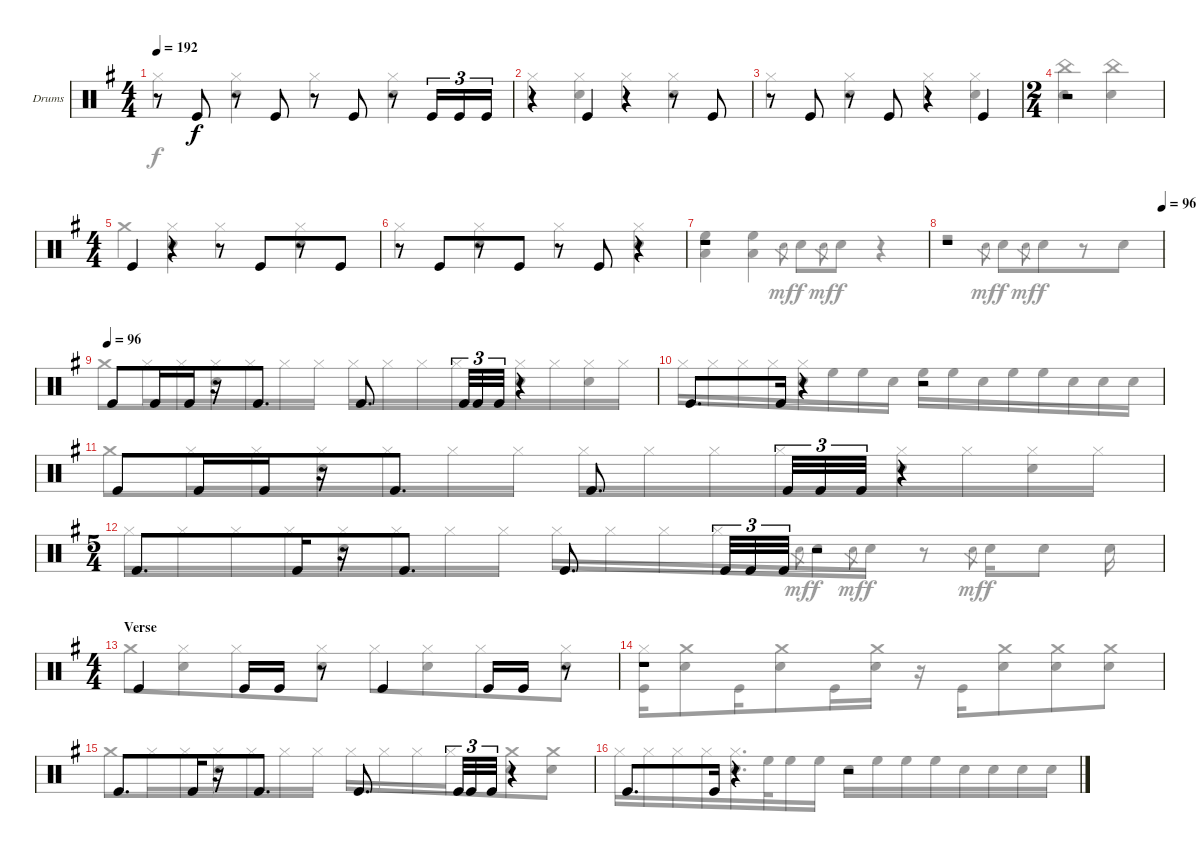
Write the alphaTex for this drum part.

\bracketExtendMode groupsimilarinstruments
\firstSystemTrackNameOrientation horizontal
\otherSystemsTrackNameOrientation horizontal
\track ("Drumkit" "Drums") {instrument percussion}
\staff {score}
\articulation defaults
\voice
\ts (4 4)
\tempo 192
\clef neutral
\scale
1.04288
\ks g
r.8{dy f} "Kick (hit)".8 r.8 "Kick (hit)".8 r.8 "Kick (hit)".8 r.8 "Kick (hit)".16{tu (3 2)} "Kick (hit)".16{tu (3 2)} "Kick (hit)".16{tu (3 2)} |
\scale
0.957125 r.4 "Kick (hit)".4 r.4 r.8 "Kick (hit)".8 |
\scale
1.04288 r.8 "Kick (hit)".8 r.8 "Kick (hit)".8 r.4 "Kick (hit)".4 |
\ts (2 4)
\beaming (8 4 4)
\scale
0.957125 r.2 |
\ts (4 4)
\beaming (8 4 4)
\scale
1.07314 "Kick (hit)".4 r.4 r.8 "Kick (hit)".8 r.8 "Kick (hit)".8 |
\scale
0.92686 r.8 "Kick (hit)".8 r.8 "Kick (hit)".8 r.8 "Kick (hit)".8 r.4 |
\scale
1.04288 r.1 |
\tempo (96 1)
\scale
0.957125 r.1 |
\tempo 96
\scale
1.04288 "Kick (hit)".8 "Kick (hit)".16 "Kick (hit)".16 r.16 "Kick (hit)".8{d} "Kick (hit)".8{d} "Kick (hit)".32{tu (3 2)} "Kick (hit)".32{tu (3 2)} "Kick (hit)".32{tu (3 2)} r.4 |
\scale
0.957125 "Kick (hit)".8{d} "Kick (hit)".16 r.4 r.2 |
\scale
1.04288 "Kick (hit)".8 "Kick (hit)".16 "Kick (hit)".16 r.16 "Kick (hit)".8{d} "Kick (hit)".8{d} "Kick (hit)".32{tu (3 2)} "Kick (hit)".32{tu (3 2)} "Kick (hit)".32{tu (3 2)} r.4 |
\ts (5 4)
\beaming (8 4 4)
\scale
0.957125 "Kick (hit)".8{d} "Kick (hit)".16 r.16 "Kick (hit)".8{d} "Kick (hit)".8{d} "Kick (hit)".32{tu (3 2)} "Kick (hit)".32{tu (3 2)} "Kick (hit)".32{tu (3 2)} r.2 |
\ts (4 4)
\beaming (8 4 4)
\section ("" "Verse")
\scale
1.07314 "Kick (hit)".4 "Kick (hit)".16 "Kick (hit)".16 r.8 "Kick (hit)".4 "Kick (hit)".16 "Kick (hit)".16 r.8 |
\scale
0.92686 r.1 |
\scale
1.04288 "Kick (hit)".8{d} "Kick (hit)".16 r.16 "Kick (hit)".8{d} "Kick (hit)".8{d} "Kick (hit)".32{tu (3 2)} "Kick (hit)".32{tu (3 2)} "Kick (hit)".32{tu (3 2)} r.4 |
\scale
0.957125 "Kick (hit)".8{d} "Kick (hit)".16 r.4 r.2
\voice
\clef neutral
\ottava regular
\simile none
\scale
1.04288
\ks g "Hi-Hat (closed)".4{dy f}
("Hi-Hat (closed)" "Snare (hit) 2").4 "Hi-Hat (closed)".4 ("Hi-Hat (closed)" "Snare (hit) 2").4 |
\scale
0.957125 "Hi-Hat (closed)".4 ("Hi-Hat (closed)" "Snare (hit) 2").4 "Hi-Hat (closed)".4 ("Hi-Hat (closed)" "Snare (hit) 2").4 |
\scale
1.04288 "Hi-Hat (closed)".4 ("Hi-Hat (closed)" "Snare (hit) 2").4 "Hi-Hat (closed)".4 ("Hi-Hat (closed)" "Snare (hit) 2").4 |
\scale
0.957125 ("China (hit)" "Snare (hit) 2").4 ("China (hit)" "Snare (hit) 2").4 |
\scale
1.07314 "Crash medium (hit)".4 ("Hi-Hat (closed)" "Snare (hit) 2").4 "Hi-Hat (closed)".4 ("Hi-Hat (closed)" "Snare (hit) 2").4 |
\scale
0.92686 "Hi-Hat (closed)".4 ("Hi-Hat (closed)" "Snare (hit) 2").4 "Hi-Hat (closed)".4 ("Hi-Hat (closed)" "Snare (hit) 2").4 |
\scale
1.04288 ("High Floor Tom (hit)" "Low Tom (hit)").4 ("High Floor Tom (hit)" "Low Tom (hit)").4 "Snare (hit) 2".8{gr dy mf} "Snare (hit) 2".8{dy f} "Snare (hit) 2".8{gr dy mf} "Snare (hit) 2".8{dy f} r.4 |
\scale
0.957125 r.2 "Snare (hit) 2".8{gr dy mf} "Snare (hit) 2".8{dy f} "Snare (hit) 2".8{gr dy mf} "Snare (hit) 2".8{dy f} r.8 "Snare (hit) 2".8 |
\scale
1.04288 "Crash medium (hit)".8 "Hi-Hat (closed)".16 "Hi-Hat (closed)".16 ("Hi-Hat (closed)" "Snare (hit) 2").16 "Hi-Hat (closed)".16 "Hi-Hat (closed)".16 "Hi-Hat (closed)".16 "Hi-Hat (closed)".16 "Hi-Hat (closed)".16 "Hi-Hat (closed)".16 "Hi-Hat (closed)".16 ("Hi-Hat (closed)" "Snare (hit) 2").16 "Hi-Hat (closed)".16 ("Hi-Hat (closed)" "Snare (hit) 2").16 "Hi-Hat (closed)".16 |
\scale
0.957125 "Hi-Hat (closed)".16 "Hi-Hat (closed)".16 "Hi-Hat (closed)".16 "Hi-Hat (closed)".16 ("Hi-Hat (closed)" "Snare (hit) 2").16 "High Floor Tom (hit)".16 "High Floor Tom (hit)".16 "Snare (hit) 2".16 "High Floor Tom (hit)".16 "High Floor Tom (hit)".16 "Snare (hit) 2".16 "High Floor Tom (hit)".16 "High Floor Tom (hit)".16 "Snare (hit) 2".16 "Snare (hit) 2".16 "Snare (hit) 2".16 |
\scale
1.04288 "Crash medium (hit)".8 "Hi-Hat (closed)".16 "Hi-Hat (closed)".16 ("Hi-Hat (closed)" "Snare (hit) 2").16 "Hi-Hat (closed)".16 "Hi-Hat (closed)".16 "Hi-Hat (closed)".16 "Hi-Hat (closed)".16 "Hi-Hat (closed)".16 "Hi-Hat (closed)".16 "Hi-Hat (closed)".16 ("Hi-Hat (closed)" "Snare (hit) 2").16 "Hi-Hat (closed)".16 ("Hi-Hat (closed)" "Snare (hit) 2").16 "Hi-Hat (closed)".16 |
\scale
0.957125 "Hi-Hat (closed)".16 "Hi-Hat (closed)".16 "Hi-Hat (closed)".16 "Hi-Hat (closed)".16 ("Hi-Hat (closed)" "Snare (hit) 2").16 "Hi-Hat (closed)".16 "Hi-Hat (closed)".16 "Hi-Hat (closed)".16 "Hi-Hat (closed)".16 "Hi-Hat (closed)".16 "Hi-Hat (closed)".16 "Hi-Hat (closed)".16 "Snare (hit) 2".8{gr dy mf} "Snare (hit) 2".16{dy f} "Snare (hit) 2".8{gr dy mf} "Snare (hit) 2".16{dy f} r.8 "Snare (hit) 2".8{gr dy mf} "Snare (hit) 2".16{dy f} "Snare (hit) 2".8 "Snare (hit) 2".16 |
\scale
1.07314 "Crash medium (hit)".8 ("Hi-Hat (closed)" "Snare (hit) 2").8 "Hi-Hat (closed)".8 ("Hi-Hat (closed)" "Snare (hit) 2").8 "Hi-Hat (closed)".8 ("Hi-Hat (closed)" "Snare (hit) 2").8 "Hi-Hat (closed)".8 ("Hi-Hat (closed)" "Snare (hit) 2").8 |
\scale
0.92686 ("Hi-Hat (closed)" "Kick (hit)").16 ("Crash medium (hit)" "Snare (hit) 2").8 "Kick (hit)".16 ("Crash medium (hit)" "Snare (hit) 2").8 "Kick (hit)".16 ("Crash medium (hit)" "Snare (hit) 2").16 r.16 "Kick (hit)".16 ("Crash medium (hit)" "Snare (hit) 2").8 ("Crash medium (hit)" "Snare (hit) 2").8 ("Crash medium (hit)" "Snare (hit) 2").8 |
\scale
1.04288 "Crash medium (hit)".8 "Hi-Hat (closed)".16 "Hi-Hat (closed)".16 ("Hi-Hat (closed)" "Snare (hit) 2").16 "Hi-Hat (closed)".16 "Hi-Hat (closed)".16 "Hi-Hat (closed)".16 "Hi-Hat (closed)".16 "Hi-Hat (closed)".16 "Hi-Hat (closed)".16 "Hi-Hat (closed)".16 ("Crash medium (hit)" "Snare (hit) 2").8 ("Crash medium (hit)" "Snare (hit) 2").8 |
\scale
0.957125 "Hi-Hat (closed)".16 "Hi-Hat (closed)".16 "Hi-Hat (closed)".16 "Hi-Hat (closed)".16 ("Hi-Hat (closed)" "Snare (hit) 2").16{d} "High Floor Tom (hit)".32 "High Floor Tom (hit)".16 "High Floor Tom (hit)".16 "Snare (hit) 2".16 "High Floor Tom (hit)".16 "High Floor Tom (hit)".16 "High Floor Tom (hit)".16 "Snare (hit) 2".16 "Snare (hit) 2".16 "Snare (hit) 2".16 "Snare (hit) 2".16
